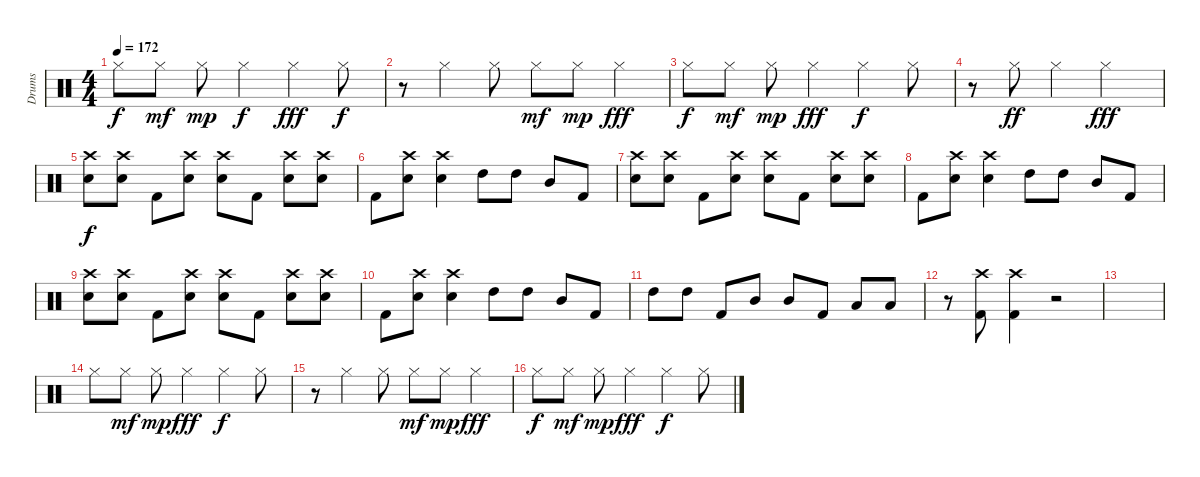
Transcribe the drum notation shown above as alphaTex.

\track ("Drums" "Drums") {instrument percussion}
\staff {score}
\articulation defaults
\ts (4 4)
\tempo 172
\clef neutral
\ks c "Hi-Hat (closed)".8{dy f} "Hi-Hat (closed)".8{dy mf} "Hi-Hat (closed)".8{dy mp} "Hi-Hat (closed)".4{dy f} "Hi-Hat (closed)".4{dy fff} "Hi-Hat (closed)".8{dy f}
|
r.8 "Hi-Hat (closed)".4 "Hi-Hat (closed)".8 "Hi-Hat (closed)".8{dy mf} "Hi-Hat (closed)".8{dy mp} "Hi-Hat (closed)".4{dy fff} |
"Hi-Hat (closed)".8{dy f} "Hi-Hat (closed)".8{dy mf} "Hi-Hat (closed)".8{dy mp} "Hi-Hat (closed)".4{dy fff} "Hi-Hat (closed)".4{dy f} "Hi-Hat (closed)".8 |
r.8 "Hi-Hat (closed)".8{dy ff} "Hi-Hat (closed)".4 "Hi-Hat (closed)".2{dy fff} |
("Crash high (hit)" "Snare (hit) 2").8{dy f} ("Crash high (hit)" "Snare (hit) 2").8 "Kick (hit) 2".8 ("Crash high (hit)" "Snare (hit) 2").8 ("Crash high (hit)" "Snare (hit) 2").8 "Kick (hit) 2".8 ("Crash high (hit)" "Snare (hit) 2").8 ("Crash high (hit)" "Snare (hit) 2").8 |
"Kick (hit) 2".8 ("Crash high (hit)" "Snare (hit) 2").8 ("Crash high (hit)" "Snare (hit) 2").4 "High Tom (hit)".8 "High Tom (hit)".8 "Mid Tom (hit)".8 "Kick (hit) 2".8 |
("Crash high (hit)" "Snare (hit) 2").8 ("Crash high (hit)" "Snare (hit) 2").8 "Kick (hit) 2".8 ("Crash high (hit)" "Snare (hit) 2").8 ("Crash high (hit)" "Snare (hit) 2").8 "Kick (hit) 2".8 ("Crash high (hit)" "Snare (hit) 2").8 ("Crash high (hit)" "Snare (hit) 2").8 |
"Kick (hit) 2".8 ("Crash high (hit)" "Snare (hit) 2").8 ("Crash high (hit)" "Snare (hit) 2").4 "High Tom (hit)".8 "High Tom (hit)".8 "Mid Tom (hit)".8 "Kick (hit) 2".8 |
("Crash high (hit)" "Snare (hit) 2").8 ("Crash high (hit)" "Snare (hit) 2").8 "Kick (hit) 2".8 ("Crash high (hit)" "Snare (hit) 2").8 ("Crash high (hit)" "Snare (hit) 2").8 "Kick (hit) 2".8 ("Crash high (hit)" "Snare (hit) 2").8 ("Crash high (hit)" "Snare (hit) 2").8 |
"Kick (hit) 2".8 ("Crash high (hit)" "Snare (hit) 2").8 ("Crash high (hit)" "Snare (hit) 2").4 "High Tom (hit)".8 "High Tom (hit)".8 "Mid Tom (hit)".8 "Kick (hit) 2".8 |
"High Tom (hit)".8 "High Tom (hit)".8 "Kick (hit) 2".8 "Mid Tom (hit)".8 "Mid Tom (hit)".8 "Kick (hit) 2".8 "Low Tom (hit)".8 "Low Tom (hit)".8 |
r.8 ("Crash high (hit)" "Kick (hit) 2").8 ("Crash high (hit)" "Kick (hit) 2").4 r.2 |
|
"Hi-Hat (closed)".8 "Hi-Hat (closed)".8{dy mf} "Hi-Hat (closed)".8{dy mp} "Hi-Hat (closed)".4{dy fff} "Hi-Hat (closed)".4{dy f} "Hi-Hat (closed)".8 |
r.8 "Hi-Hat (closed)".4 "Hi-Hat (closed)".8 "Hi-Hat (closed)".8{dy mf} "Hi-Hat (closed)".8{dy mp} "Hi-Hat (closed)".4{dy fff} |
"Hi-Hat (closed)".8{dy f} "Hi-Hat (closed)".8{dy mf} "Hi-Hat (closed)".8{dy mp} "Hi-Hat (closed)".4{dy fff} "Hi-Hat (closed)".4{dy f} "Hi-Hat (closed)".8
